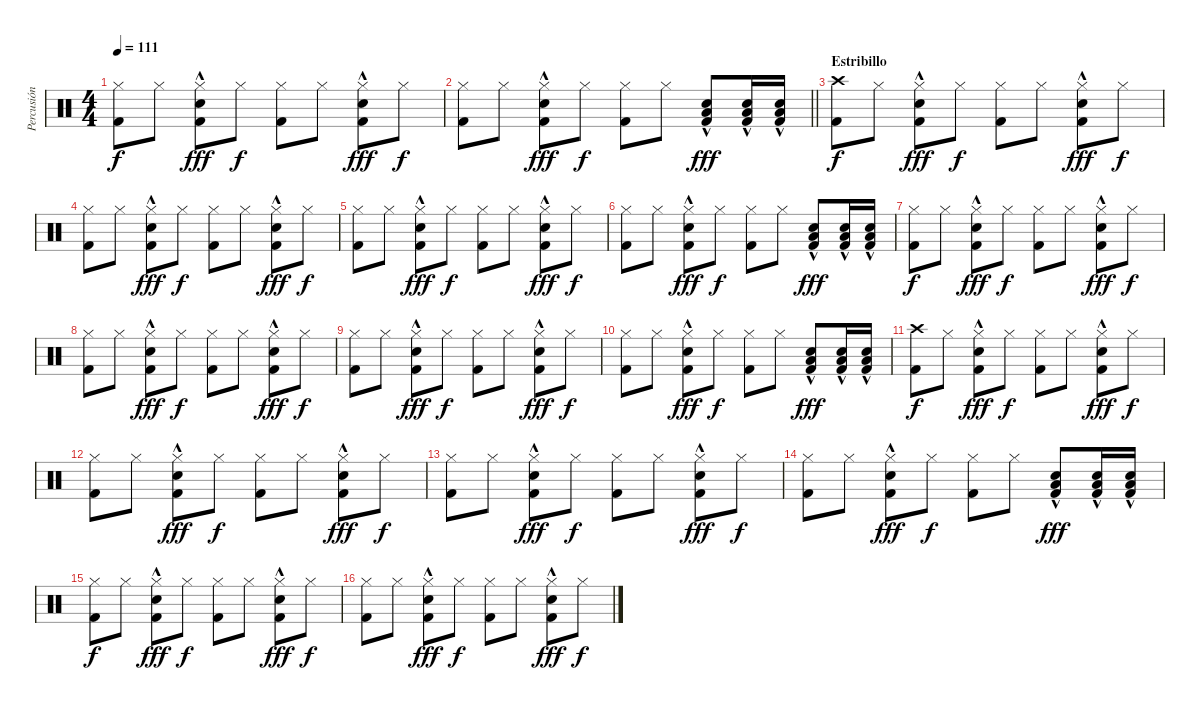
\track ("Percusión" "Percusión") {instrument percussion}
\staff {score}
\articulation defaults
\ts (4 4)
\tempo 111
\clef neutral
\ks c
("Hi-Hat (closed)" "Kick (hit) 2").8{dy f} "Hi-Hat (closed)".8 ("Electric Snare (hit)"{hac} "Hi-Hat (closed)"{hac} "Kick (hit) 2"{hac}).8{dy fff} "Hi-Hat (closed)".8{dy f} ("Hi-Hat (closed)" "Kick (hit) 2").8 "Hi-Hat (closed)".8 ("Electric Snare (hit)"{hac} "Hi-Hat (closed)"{hac} "Kick (hit) 2"{hac}).8{dy fff} "Hi-Hat (closed)".8{dy f} |
\barLineRight lightlight
("Hi-Hat (closed)" "Kick (hit) 2").8 "Hi-Hat (closed)".8 ("Electric Snare (hit)"{hac} "Hi-Hat (closed)"{hac} "Kick (hit) 2"{hac}).8{dy fff} "Hi-Hat (closed)".8{dy f} ("Hi-Hat (closed)" "Kick (hit) 2").8 "Hi-Hat (closed)".8 ("Snare (hit) 2"{hac} "Low Floor Tom (hit)"{hac} "Kick (hit) 2"{hac}).8{dy fff} ("Snare (hit) 2"{hac} "Low Floor Tom (hit)"{hac} "Kick (hit) 2"{hac}).16 ("Snare (hit) 2"{hac} "Low Floor Tom (hit)"{hac} "Kick (hit) 2"{hac}).16 |
\section ("" "Estribillo")
("Crash high (hit)" "Kick (hit) 2").8{dy f} "Hi-Hat (closed)".8 ("Electric Snare (hit)"{hac} "Hi-Hat (closed)"{hac} "Kick (hit) 2"{hac}).8{dy fff} "Hi-Hat (closed)".8{dy f} ("Hi-Hat (closed)" "Kick (hit) 2").8 "Hi-Hat (closed)".8 ("Electric Snare (hit)"{hac} "Hi-Hat (closed)"{hac} "Kick (hit) 2"{hac}).8{dy fff} "Hi-Hat (closed)".8{dy f} |
("Hi-Hat (closed)" "Kick (hit) 2").8 "Hi-Hat (closed)".8 ("Electric Snare (hit)"{hac} "Hi-Hat (closed)"{hac} "Kick (hit) 2"{hac}).8{dy fff} "Hi-Hat (closed)".8{dy f} ("Hi-Hat (closed)" "Kick (hit) 2").8 "Hi-Hat (closed)".8 ("Electric Snare (hit)"{hac} "Hi-Hat (closed)"{hac} "Kick (hit) 2"{hac}).8{dy fff} "Hi-Hat (closed)".8{dy f} |
("Hi-Hat (closed)" "Kick (hit) 2").8 "Hi-Hat (closed)".8 ("Electric Snare (hit)"{hac} "Hi-Hat (closed)"{hac} "Kick (hit) 2"{hac}).8{dy fff} "Hi-Hat (closed)".8{dy f} ("Hi-Hat (closed)" "Kick (hit) 2").8 "Hi-Hat (closed)".8 ("Electric Snare (hit)"{hac} "Hi-Hat (closed)"{hac} "Kick (hit) 2"{hac}).8{dy fff} "Hi-Hat (closed)".8{dy f} |
("Hi-Hat (closed)" "Kick (hit) 2").8 "Hi-Hat (closed)".8 ("Electric Snare (hit)"{hac} "Hi-Hat (closed)"{hac} "Kick (hit) 2"{hac}).8{dy fff} "Hi-Hat (closed)".8{dy f} ("Hi-Hat (closed)" "Kick (hit) 2").8 "Hi-Hat (closed)".8 ("Snare (hit) 2"{hac} "Low Floor Tom (hit)"{hac} "Kick (hit) 2"{hac}).8{dy fff} ("Snare (hit) 2"{hac} "Low Floor Tom (hit)"{hac} "Kick (hit) 2"{hac}).16 ("Snare (hit) 2"{hac} "Low Floor Tom (hit)"{hac} "Kick (hit) 2"{hac}).16 |
("Hi-Hat (closed)" "Kick (hit) 2").8{dy f} "Hi-Hat (closed)".8 ("Electric Snare (hit)"{hac} "Hi-Hat (closed)"{hac} "Kick (hit) 2"{hac}).8{dy fff} "Hi-Hat (closed)".8{dy f} ("Hi-Hat (closed)" "Kick (hit) 2").8 "Hi-Hat (closed)".8 ("Electric Snare (hit)"{hac} "Hi-Hat (closed)"{hac} "Kick (hit) 2"{hac}).8{dy fff} "Hi-Hat (closed)".8{dy f} |
("Hi-Hat (closed)" "Kick (hit) 2").8 "Hi-Hat (closed)".8 ("Electric Snare (hit)"{hac} "Hi-Hat (closed)"{hac} "Kick (hit) 2"{hac}).8{dy fff} "Hi-Hat (closed)".8{dy f} ("Hi-Hat (closed)" "Kick (hit) 2").8 "Hi-Hat (closed)".8 ("Electric Snare (hit)"{hac} "Hi-Hat (closed)"{hac} "Kick (hit) 2"{hac}).8{dy fff} "Hi-Hat (closed)".8{dy f} |
("Hi-Hat (closed)" "Kick (hit) 2").8 "Hi-Hat (closed)".8 ("Electric Snare (hit)"{hac} "Hi-Hat (closed)"{hac} "Kick (hit) 2"{hac}).8{dy fff} "Hi-Hat (closed)".8{dy f} ("Hi-Hat (closed)" "Kick (hit) 2").8 "Hi-Hat (closed)".8 ("Electric Snare (hit)"{hac} "Hi-Hat (closed)"{hac} "Kick (hit) 2"{hac}).8{dy fff} "Hi-Hat (closed)".8{dy f} |
("Hi-Hat (closed)" "Kick (hit) 2").8 "Hi-Hat (closed)".8 ("Electric Snare (hit)"{hac} "Hi-Hat (closed)"{hac} "Kick (hit) 2"{hac}).8{dy fff} "Hi-Hat (closed)".8{dy f} ("Hi-Hat (closed)" "Kick (hit) 2").8 "Hi-Hat (closed)".8 ("Snare (hit) 2"{hac} "Low Floor Tom (hit)"{hac} "Kick (hit) 2"{hac}).8{dy fff} ("Snare (hit) 2"{hac} "Low Floor Tom (hit)"{hac} "Kick (hit) 2"{hac}).16 ("Snare (hit) 2"{hac} "Low Floor Tom (hit)"{hac} "Kick (hit) 2"{hac}).16 |
("Crash high (hit)" "Kick (hit) 2").8{dy f} "Hi-Hat (closed)".8 ("Electric Snare (hit)"{hac} "Hi-Hat (closed)"{hac} "Kick (hit) 2"{hac}).8{dy fff} "Hi-Hat (closed)".8{dy f} ("Hi-Hat (closed)" "Kick (hit) 2").8 "Hi-Hat (closed)".8 ("Electric Snare (hit)"{hac} "Hi-Hat (closed)"{hac} "Kick (hit) 2"{hac}).8{dy fff} "Hi-Hat (closed)".8{dy f} |
("Hi-Hat (closed)" "Kick (hit) 2").8 "Hi-Hat (closed)".8 ("Electric Snare (hit)"{hac} "Hi-Hat (closed)"{hac} "Kick (hit) 2"{hac}).8{dy fff} "Hi-Hat (closed)".8{dy f} ("Hi-Hat (closed)" "Kick (hit) 2").8 "Hi-Hat (closed)".8 ("Electric Snare (hit)"{hac} "Hi-Hat (closed)"{hac} "Kick (hit) 2"{hac}).8{dy fff} "Hi-Hat (closed)".8{dy f} |
("Hi-Hat (closed)" "Kick (hit) 2").8 "Hi-Hat (closed)".8 ("Electric Snare (hit)"{hac} "Hi-Hat (closed)"{hac} "Kick (hit) 2"{hac}).8{dy fff} "Hi-Hat (closed)".8{dy f} ("Hi-Hat (closed)" "Kick (hit) 2").8 "Hi-Hat (closed)".8 ("Electric Snare (hit)"{hac} "Hi-Hat (closed)"{hac} "Kick (hit) 2"{hac}).8{dy fff} "Hi-Hat (closed)".8{dy f} |
("Hi-Hat (closed)" "Kick (hit) 2").8 "Hi-Hat (closed)".8 ("Electric Snare (hit)"{hac} "Hi-Hat (closed)"{hac} "Kick (hit) 2"{hac}).8{dy fff} "Hi-Hat (closed)".8{dy f} ("Hi-Hat (closed)" "Kick (hit) 2").8 "Hi-Hat (closed)".8 ("Snare (hit) 2"{hac} "Low Floor Tom (hit)"{hac} "Kick (hit) 2"{hac}).8{dy fff} ("Snare (hit) 2"{hac} "Low Floor Tom (hit)"{hac} "Kick (hit) 2"{hac}).16 ("Snare (hit) 2"{hac} "Low Floor Tom (hit)"{hac} "Kick (hit) 2"{hac}).16 |
("Hi-Hat (closed)" "Kick (hit) 2").8{dy f} "Hi-Hat (closed)".8 ("Electric Snare (hit)"{hac} "Hi-Hat (closed)"{hac} "Kick (hit) 2"{hac}).8{dy fff} "Hi-Hat (closed)".8{dy f} ("Hi-Hat (closed)" "Kick (hit) 2").8 "Hi-Hat (closed)".8 ("Electric Snare (hit)"{hac} "Hi-Hat (closed)"{hac} "Kick (hit) 2"{hac}).8{dy fff} "Hi-Hat (closed)".8{dy f} |
("Hi-Hat (closed)" "Kick (hit) 2").8 "Hi-Hat (closed)".8 ("Electric Snare (hit)"{hac} "Hi-Hat (closed)"{hac} "Kick (hit) 2"{hac}).8{dy fff} "Hi-Hat (closed)".8{dy f} ("Hi-Hat (closed)" "Kick (hit) 2").8 "Hi-Hat (closed)".8 ("Electric Snare (hit)"{hac} "Hi-Hat (closed)"{hac} "Kick (hit) 2"{hac}).8{dy fff} "Hi-Hat (closed)".8{dy f}
